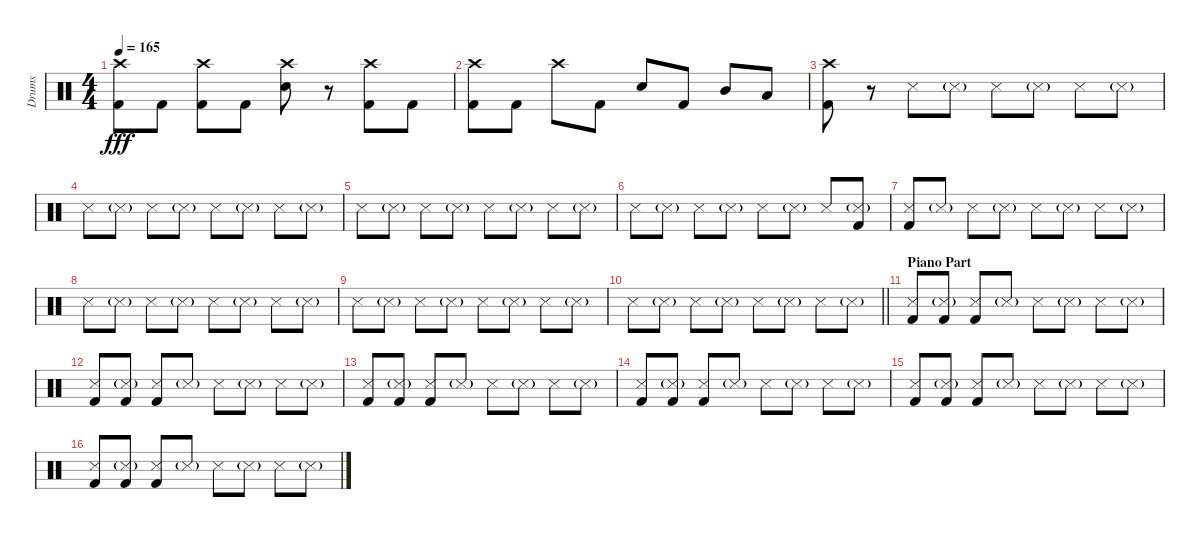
\track ("Drums" "Drums") {instrument percussion}
\staff {score}
\articulation defaults
\ts (4 4)
\tempo 165
\clef neutral
\ks c
("Crash high (hit)" "Kick (hit) 2").8{dy fff} "Kick (hit) 2".8 ("Crash high (hit)" "Kick (hit) 2").8 "Kick (hit) 2".8 ("Crash high (hit)" "Electric Snare (hit)").8 r.8 ("Crash high (hit)" "Kick (hit) 2").8 "Kick (hit) 2".8 |
("Crash high (hit)" "Kick (hit) 2").8 "Kick (hit) 2".8 "Crash high (hit)".8 "Kick (hit) 2".8 "Electric Snare (hit)".8 "Kick (hit) 2".8 "Mid Tom (hit)".8 "Low Tom (hit)".8 |
("Crash high (hit)" "Kick (hit) 2").8 r.8 "Snare (side stick) 3".8 "Snare (side stick) 3"{g}.8 "Snare (side stick) 3".8 "Snare (side stick) 3"{g}.8 "Snare (side stick) 3".8 "Snare (side stick) 3"{g}.8 |
"Snare (side stick) 3".8 "Snare (side stick) 3"{g}.8 "Snare (side stick) 3".8 "Snare (side stick) 3"{g}.8 "Snare (side stick) 3".8 "Snare (side stick) 3"{g}.8 "Snare (side stick) 3".8 "Snare (side stick) 3"{g}.8 |
"Snare (side stick) 3".8 "Snare (side stick) 3"{g}.8 "Snare (side stick) 3".8 "Snare (side stick) 3"{g}.8 "Snare (side stick) 3".8 "Snare (side stick) 3"{g}.8 "Snare (side stick) 3".8 "Snare (side stick) 3"{g}.8 |
"Snare (side stick) 3".8 "Snare (side stick) 3"{g}.8 "Snare (side stick) 3".8 "Snare (side stick) 3"{g}.8 "Snare (side stick) 3".8 "Snare (side stick) 3"{g}.8 "Snare (side stick) 3".8 ("Snare (side stick) 3"{g} "Kick (hit) 2").8 |
("Snare (side stick) 3" "Kick (hit) 2").8 "Snare (side stick) 3"{g}.8 "Snare (side stick) 3".8 "Snare (side stick) 3"{g}.8 "Snare (side stick) 3".8 "Snare (side stick) 3"{g}.8 "Snare (side stick) 3".8 "Snare (side stick) 3"{g}.8 |
"Snare (side stick) 3".8 "Snare (side stick) 3"{g}.8 "Snare (side stick) 3".8 "Snare (side stick) 3"{g}.8 "Snare (side stick) 3".8 "Snare (side stick) 3"{g}.8 "Snare (side stick) 3".8 "Snare (side stick) 3"{g}.8 |
"Snare (side stick) 3".8 "Snare (side stick) 3"{g}.8 "Snare (side stick) 3".8 "Snare (side stick) 3"{g}.8 "Snare (side stick) 3".8 "Snare (side stick) 3"{g}.8 "Snare (side stick) 3".8 "Snare (side stick) 3"{g}.8 |
\barLineRight lightlight "Snare (side stick) 3".8 "Snare (side stick) 3"{g}.8 "Snare (side stick) 3".8 "Snare (side stick) 3"{g}.8 "Snare (side stick) 3".8 "Snare (side stick) 3"{g}.8 "Snare (side stick) 3".8 "Snare (side stick) 3"{g}.8
|
\section ("" "Piano Part")
("Snare (side stick) 3" "Kick (hit) 2").8 ("Snare (side stick) 3"{g} "Kick (hit) 2").8 ("Snare (side stick) 3" "Kick (hit) 2").8 "Snare (side stick) 3"{g}.8 "Snare (side stick) 3".8 "Snare (side stick) 3"{g}.8 "Snare (side stick) 3".8 "Snare (side stick) 3"{g}.8 |
("Snare (side stick) 3" "Kick (hit) 2").8 ("Snare (side stick) 3"{g} "Kick (hit) 2").8 ("Snare (side stick) 3" "Kick (hit) 2").8 "Snare (side stick) 3"{g}.8 "Snare (side stick) 3".8 "Snare (side stick) 3"{g}.8 "Snare (side stick) 3".8 "Snare (side stick) 3"{g}.8 |
("Snare (side stick) 3" "Kick (hit) 2").8 ("Snare (side stick) 3"{g} "Kick (hit) 2").8 ("Snare (side stick) 3" "Kick (hit) 2").8 "Snare (side stick) 3"{g}.8 "Snare (side stick) 3".8 "Snare (side stick) 3"{g}.8 "Snare (side stick) 3".8 "Snare (side stick) 3"{g}.8 |
("Snare (side stick) 3" "Kick (hit) 2").8 ("Snare (side stick) 3"{g} "Kick (hit) 2").8 ("Snare (side stick) 3" "Kick (hit) 2").8 "Snare (side stick) 3"{g}.8 "Snare (side stick) 3".8 "Snare (side stick) 3"{g}.8 "Snare (side stick) 3".8 "Snare (side stick) 3"{g}.8 |
("Snare (side stick) 3" "Kick (hit) 2").8 ("Snare (side stick) 3"{g} "Kick (hit) 2").8 ("Snare (side stick) 3" "Kick (hit) 2").8 "Snare (side stick) 3"{g}.8 "Snare (side stick) 3".8 "Snare (side stick) 3"{g}.8 "Snare (side stick) 3".8 "Snare (side stick) 3"{g}.8 |
("Snare (side stick) 3" "Kick (hit) 2").8 ("Snare (side stick) 3"{g} "Kick (hit) 2").8 ("Snare (side stick) 3" "Kick (hit) 2").8 "Snare (side stick) 3"{g}.8 "Snare (side stick) 3".8 "Snare (side stick) 3"{g}.8 "Snare (side stick) 3".8 "Snare (side stick) 3"{g}.8
